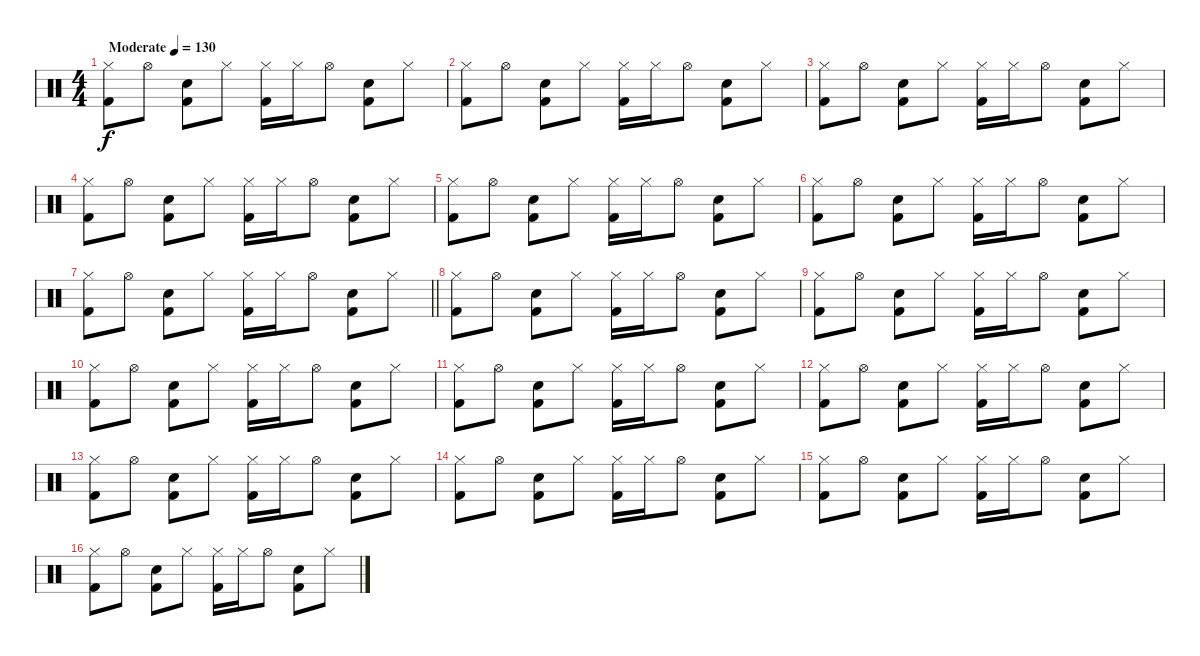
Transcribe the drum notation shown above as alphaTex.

\track "" {instrument percussion}
\staff {score}
\articulation defaults
\ts (4 4)
\tempo (130 "Moderate")
\clef neutral
\ks c
("Hi-Hat (closed)" "Kick (hit) 2").8{dy f} "Hi-Hat (open)".8 ("Hand Clap (hit)" "Kick (hit) 2").8 "Hi-Hat (closed)".8 ("Hi-Hat (closed)" "Kick (hit) 2").16 "Hi-Hat (closed)".16 "Hi-Hat (open)".8 ("Hand Clap (hit)" "Kick (hit) 2").8 "Hi-Hat (closed)".8 |
("Hi-Hat (closed)" "Kick (hit) 2").8 "Hi-Hat (open)".8 ("Hand Clap (hit)" "Kick (hit) 2").8 "Hi-Hat (closed)".8 ("Hi-Hat (closed)" "Kick (hit) 2").16 "Hi-Hat (closed)".16 "Hi-Hat (open)".8 ("Hand Clap (hit)" "Kick (hit) 2").8 "Hi-Hat (closed)".8 |
("Hi-Hat (closed)" "Kick (hit) 2").8 "Hi-Hat (open)".8 ("Hand Clap (hit)" "Kick (hit) 2").8 "Hi-Hat (closed)".8 ("Hi-Hat (closed)" "Kick (hit) 2").16 "Hi-Hat (closed)".16 "Hi-Hat (open)".8 ("Hand Clap (hit)" "Kick (hit) 2").8 "Hi-Hat (closed)".8 |
("Hi-Hat (closed)" "Kick (hit) 2").8 "Hi-Hat (open)".8 ("Hand Clap (hit)" "Kick (hit) 2").8 "Hi-Hat (closed)".8 ("Hi-Hat (closed)" "Kick (hit) 2").16 "Hi-Hat (closed)".16 "Hi-Hat (open)".8 ("Hand Clap (hit)" "Kick (hit) 2").8 "Hi-Hat (closed)".8 |
("Hi-Hat (closed)" "Kick (hit) 2").8 "Hi-Hat (open)".8 ("Hand Clap (hit)" "Kick (hit) 2").8 "Hi-Hat (closed)".8 ("Hi-Hat (closed)" "Kick (hit) 2").16 "Hi-Hat (closed)".16 "Hi-Hat (open)".8 ("Hand Clap (hit)" "Kick (hit) 2").8 "Hi-Hat (closed)".8 |
("Hi-Hat (closed)" "Kick (hit) 2").8 "Hi-Hat (open)".8 ("Hand Clap (hit)" "Kick (hit) 2").8 "Hi-Hat (closed)".8 ("Hi-Hat (closed)" "Kick (hit) 2").16 "Hi-Hat (closed)".16 "Hi-Hat (open)".8 ("Hand Clap (hit)" "Kick (hit) 2").8 "Hi-Hat (closed)".8 |
\barLineRight lightlight
("Hi-Hat (closed)" "Kick (hit) 2").8 "Hi-Hat (open)".8 ("Hand Clap (hit)" "Kick (hit) 2").8 "Hi-Hat (closed)".8 ("Hi-Hat (closed)" "Kick (hit) 2").16 "Hi-Hat (closed)".16 "Hi-Hat (open)".8 ("Hand Clap (hit)" "Kick (hit) 2").8 "Hi-Hat (closed)".8 |
\section ("" "")
("Hi-Hat (closed)" "Kick (hit) 2").8 "Hi-Hat (open)".8 ("Electric Snare (hit)" "Kick (hit) 2").8 "Hi-Hat (closed)".8 ("Hi-Hat (closed)" "Kick (hit) 2").16 "Hi-Hat (closed)".16 "Hi-Hat (open)".8 ("Electric Snare (hit)" "Kick (hit) 2").8 "Hi-Hat (closed)".8 |
("Hi-Hat (closed)" "Kick (hit) 2").8 "Hi-Hat (open)".8 ("Electric Snare (hit)" "Kick (hit) 2").8 "Hi-Hat (closed)".8 ("Hi-Hat (closed)" "Kick (hit) 2").16 "Hi-Hat (closed)".16 "Hi-Hat (open)".8 ("Electric Snare (hit)" "Kick (hit) 2").8 "Hi-Hat (closed)".8 |
("Hi-Hat (closed)" "Kick (hit) 2").8 "Hi-Hat (open)".8 ("Electric Snare (hit)" "Kick (hit) 2").8 "Hi-Hat (closed)".8 ("Hi-Hat (closed)" "Kick (hit) 2").16 "Hi-Hat (closed)".16 "Hi-Hat (open)".8 ("Electric Snare (hit)" "Kick (hit) 2").8 "Hi-Hat (closed)".8 |
("Hi-Hat (closed)" "Kick (hit) 2").8 "Hi-Hat (open)".8 ("Electric Snare (hit)" "Kick (hit) 2").8 "Hi-Hat (closed)".8 ("Hi-Hat (closed)" "Kick (hit) 2").16 "Hi-Hat (closed)".16 "Hi-Hat (open)".8 ("Electric Snare (hit)" "Kick (hit) 2").8 "Hi-Hat (closed)".8 |
("Hi-Hat (closed)" "Kick (hit) 2").8 "Hi-Hat (open)".8 ("Electric Snare (hit)" "Kick (hit) 2").8 "Hi-Hat (closed)".8 ("Hi-Hat (closed)" "Kick (hit) 2").16 "Hi-Hat (closed)".16 "Hi-Hat (open)".8 ("Electric Snare (hit)" "Kick (hit) 2").8 "Hi-Hat (closed)".8 |
("Hi-Hat (closed)" "Kick (hit) 2").8 "Hi-Hat (open)".8 ("Electric Snare (hit)" "Kick (hit) 2").8 "Hi-Hat (closed)".8 ("Hi-Hat (closed)" "Kick (hit) 2").16 "Hi-Hat (closed)".16 "Hi-Hat (open)".8 ("Electric Snare (hit)" "Kick (hit) 2").8 "Hi-Hat (closed)".8 |
("Hi-Hat (closed)" "Kick (hit) 2").8 "Hi-Hat (open)".8 ("Electric Snare (hit)" "Kick (hit) 2").8 "Hi-Hat (closed)".8 ("Hi-Hat (closed)" "Kick (hit) 2").16 "Hi-Hat (closed)".16 "Hi-Hat (open)".8 ("Electric Snare (hit)" "Kick (hit) 2").8 "Hi-Hat (closed)".8 |
("Hi-Hat (closed)" "Kick (hit) 2").8 "Hi-Hat (open)".8 ("Electric Snare (hit)" "Kick (hit) 2").8 "Hi-Hat (closed)".8 ("Hi-Hat (closed)" "Kick (hit) 2").16 "Hi-Hat (closed)".16 "Hi-Hat (open)".8 ("Electric Snare (hit)" "Kick (hit) 2").8 "Hi-Hat (closed)".8 |
("Hi-Hat (closed)" "Kick (hit) 2").8 "Hi-Hat (open)".8 ("Electric Snare (hit)" "Kick (hit) 2").8 "Hi-Hat (closed)".8 ("Hi-Hat (closed)" "Kick (hit) 2").16 "Hi-Hat (closed)".16 "Hi-Hat (open)".8 ("Electric Snare (hit)" "Kick (hit) 2").8 "Hi-Hat (closed)".8
